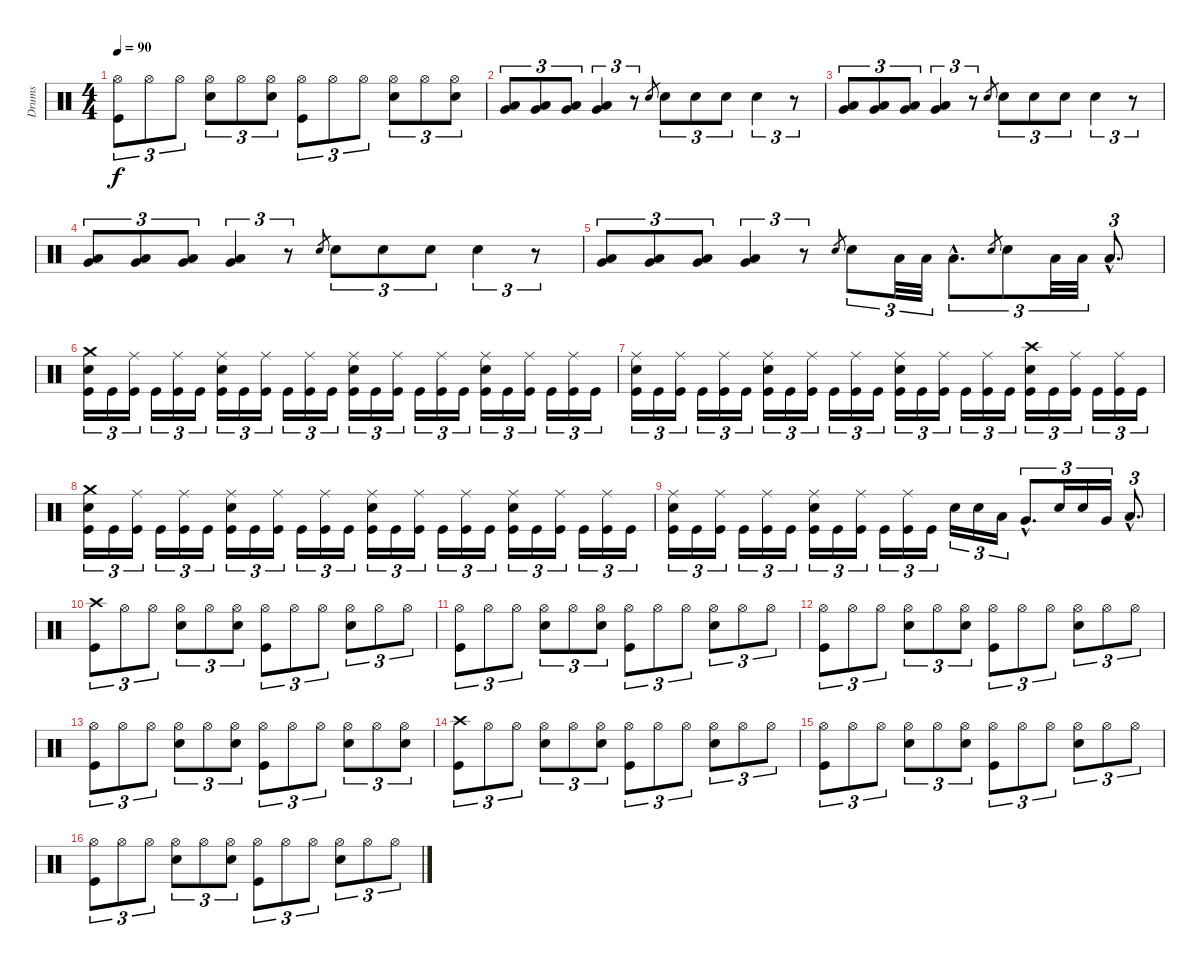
\track ("Drums" "Drums") {instrument percussion}
\staff {score}
\articulation defaults
\ts (4 4)
\tempo 90
\clef neutral
\ks c
("Hi-Hat (open)" "Kick (hit)").8{tu (3 2) dy f} "Hi-Hat (open)".8{tu (3 2)} "Hi-Hat (open)".8{tu (3 2)} ("Hi-Hat (open)" "Snare (hit) 2").8{tu (3 2)} "Hi-Hat (open)".8{tu (3 2)} ("Hi-Hat (open)" "Snare (hit) 2").8{tu (3 2)} ("Hi-Hat (open)" "Kick (hit)").8{tu (3 2)} "Hi-Hat (open)".8{tu (3 2)} "Hi-Hat (open)".8{tu (3 2)} ("Hi-Hat (open)" "Snare (hit) 2").8{tu (3 2)} "Hi-Hat (open)".8{tu (3 2)} ("Hi-Hat (open)" "Snare (hit) 2").8{tu (3 2)} |
("Very Low Tom (hit)" "Low Floor Tom (hit)").8{tu (3 2)} ("Very Low Tom (hit)" "Low Floor Tom (hit)").8{tu (3 2)} ("Very Low Tom (hit)" "Low Floor Tom (hit)").8{tu (3 2)} ("Very Low Tom (hit)" "Low Floor Tom (hit)").4{tu (3 2)} r.8{tu (3 2)} "Snare (hit) 2".8{gr} "Snare (hit) 2".8{tu (3 2)} "Snare (hit) 2".8{tu (3 2)} "Snare (hit) 2".8{tu (3 2)} "Snare (hit) 2".4{tu (3 2)} r.8{tu (3 2)} |
("Very Low Tom (hit)" "Low Floor Tom (hit)").8{tu (3 2)} ("Very Low Tom (hit)" "Low Floor Tom (hit)").8{tu (3 2)} ("Very Low Tom (hit)" "Low Floor Tom (hit)").8{tu (3 2)} ("Very Low Tom (hit)" "Low Floor Tom (hit)").4{tu (3 2)} r.8{tu (3 2)} "Snare (hit) 2".8{gr} "Snare (hit) 2".8{tu (3 2)} "Snare (hit) 2".8{tu (3 2)} "Snare (hit) 2".8{tu (3 2)} "Snare (hit) 2".4{tu (3 2)} r.8{tu (3 2)} |
("Very Low Tom (hit)" "Low Floor Tom (hit)").8{tu (3 2)} ("Very Low Tom (hit)" "Low Floor Tom (hit)").8{tu (3 2)} ("Very Low Tom (hit)" "Low Floor Tom (hit)").8{tu (3 2)} ("Very Low Tom (hit)" "Low Floor Tom (hit)").4{tu (3 2)} r.8{tu (3 2)} "Snare (hit) 2".8{gr} "Snare (hit) 2".8{tu (3 2)} "Snare (hit) 2".8{tu (3 2)} "Snare (hit) 2".8{tu (3 2)} "Snare (hit) 2".4{tu (3 2)} r.8{tu (3 2)} |
("Very Low Tom (hit)" "Low Floor Tom (hit)").8{tu (3 2)} ("Very Low Tom (hit)" "Low Floor Tom (hit)").8{tu (3 2)} ("Very Low Tom (hit)" "Low Floor Tom (hit)").8{tu (3 2)} ("Very Low Tom (hit)" "Low Floor Tom (hit)").4{tu (3 2)} r.8{tu (3 2)} "Snare (hit) 2".8{gr} "Snare (hit) 2".8{tu (3 2)} "Low Floor Tom (hit)".32{tu (3 2)} "Low Floor Tom (hit)".32{tu (3 2)} "Low Floor Tom (hit)"{hac}.8{d tu (3 2)} "Snare (hit) 2".8{gr} "Snare (hit) 2".8{tu (3 2)} "Low Floor Tom (hit)".32{tu (3 2)} "Low Floor Tom (hit)".32{tu (3 2)} "Low Floor Tom (hit)"{hac}.8{d tu (3 2)} |
("Crash medium (hit)" "Snare (hit) 2" "Kick (hit)").16{tu (3 2)} "Kick (hit)".16{tu (3 2)} ("Ride (middle)" "Kick (hit)").16{tu (3 2)} "Kick (hit)".16{tu (3 2)} ("Ride (middle)" "Kick (hit)").16{tu (3 2)} "Kick (hit)".16{tu (3 2)} ("Ride (middle)" "Snare (hit) 2" "Kick (hit)").16{tu (3 2)} "Kick (hit)".16{tu (3 2)} ("Ride (middle)" "Kick (hit)").16{tu (3 2)} "Kick (hit)".16{tu (3 2)} ("Ride (middle)" "Kick (hit)").16{tu (3 2)} "Kick (hit)".16{tu (3 2)} ("Ride (middle)" "Snare (hit) 2" "Kick (hit)").16{tu (3 2)} "Kick (hit)".16{tu (3 2)} ("Ride (middle)" "Kick (hit)").16{tu (3 2)} "Kick (hit)".16{tu (3 2)} ("Ride (middle)" "Kick (hit)").16{tu (3 2)} "Kick (hit)".16{tu (3 2)} ("Ride (middle)" "Snare (hit) 2" "Kick (hit)").16{tu (3 2)} "Kick (hit)".16{tu (3 2)} ("Ride (middle)" "Kick (hit)").16{tu (3 2)} "Kick (hit)".16{tu (3 2)} ("Ride (middle)" "Kick (hit)").16{tu (3 2)} "Kick (hit)".16{tu (3 2)} |
("Ride (middle)" "Snare (hit) 2" "Kick (hit)").16{tu (3 2)} "Kick (hit)".16{tu (3 2)} ("Ride (middle)" "Kick (hit)").16{tu (3 2)} "Kick (hit)".16{tu (3 2)} ("Ride (middle)" "Kick (hit)").16{tu (3 2)} "Kick (hit)".16{tu (3 2)} ("Ride (middle)" "Snare (hit) 2" "Kick (hit)").16{tu (3 2)} "Kick (hit)".16{tu (3 2)} ("Ride (middle)" "Kick (hit)").16{tu (3 2)} "Kick (hit)".16{tu (3 2)} ("Ride (middle)" "Kick (hit)").16{tu (3 2)} "Kick (hit)".16{tu (3 2)} ("Ride (middle)" "Snare (hit) 2" "Kick (hit)").16{tu (3 2)} "Kick (hit)".16{tu (3 2)} ("Ride (middle)" "Kick (hit)").16{tu (3 2)} "Kick (hit)".16{tu (3 2)} ("Ride (middle)" "Kick (hit)").16{tu (3 2)} "Kick (hit)".16{tu (3 2)} ("Crash high (hit)" "Snare (hit) 2" "Kick (hit)").16{tu (3 2)} "Kick (hit)".16{tu (3 2)} ("Ride (middle)" "Kick (hit)").16{tu (3 2)} "Kick (hit)".16{tu (3 2)} ("Ride (middle)" "Kick (hit)").16{tu (3 2)} "Kick (hit)".16{tu (3 2)} |
("Crash medium (hit)" "Snare (hit) 2" "Kick (hit)").16{tu (3 2)} "Kick (hit)".16{tu (3 2)} ("Ride (middle)" "Kick (hit)").16{tu (3 2)} "Kick (hit)".16{tu (3 2)} ("Ride (middle)" "Kick (hit)").16{tu (3 2)} "Kick (hit)".16{tu (3 2)} ("Ride (middle)" "Snare (hit) 2" "Kick (hit)").16{tu (3 2)} "Kick (hit)".16{tu (3 2)} ("Ride (middle)" "Kick (hit)").16{tu (3 2)} "Kick (hit)".16{tu (3 2)} ("Ride (middle)" "Kick (hit)").16{tu (3 2)} "Kick (hit)".16{tu (3 2)} ("Ride (middle)" "Snare (hit) 2" "Kick (hit)").16{tu (3 2)} "Kick (hit)".16{tu (3 2)} ("Ride (middle)" "Kick (hit)").16{tu (3 2)} "Kick (hit)".16{tu (3 2)} ("Ride (middle)" "Kick (hit)").16{tu (3 2)} "Kick (hit)".16{tu (3 2)} ("Ride (middle)" "Snare (hit) 2" "Kick (hit)").16{tu (3 2)} "Kick (hit)".16{tu (3 2)} ("Ride (middle)" "Kick (hit)").16{tu (3 2)} "Kick (hit)".16{tu (3 2)} ("Ride (middle)" "Kick (hit)").16{tu (3 2)} "Kick (hit)".16{tu (3 2)} |
("Ride (middle)" "Snare (hit) 2" "Kick (hit)").16{tu (3 2)} "Kick (hit)".16{tu (3 2)} ("Ride (middle)" "Kick (hit)").16{tu (3 2)} "Kick (hit)".16{tu (3 2)} ("Ride (middle)" "Kick (hit)").16{tu (3 2)} "Kick (hit)".16{tu (3 2)} ("Ride (middle)" "Snare (hit) 2" "Kick (hit)").16{tu (3 2)} "Kick (hit)".16{tu (3 2)} ("Ride (middle)" "Kick (hit)").16{tu (3 2)} "Kick (hit)".16{tu (3 2)} ("Ride (middle)" "Kick (hit)").16{tu (3 2)} "Kick (hit)".16{tu (3 2)} "Snare (hit) 2".16{tu (3 2)} "Snare (hit) 2".16{tu (3 2)} "Low Tom (hit)".16{tu (3 2)} "Very Low Tom (hit)"{hac}.8{d tu (3 2)} "Snare (hit) 2".16{tu (3 2)} "Snare (hit) 2".16{tu (3 2)} "Very Low Tom (hit)".16{tu (3 2)} "Low Floor Tom (hit)"{hac}.8{d tu (3 2)} |
("Crash high (hit)" "Kick (hit)").8{tu (3 2)} "Hi-Hat (open)".8{tu (3 2)} "Hi-Hat (open)".8{tu (3 2)} ("Hi-Hat (open)" "Snare (hit) 2").8{tu (3 2)} "Hi-Hat (open)".8{tu (3 2)} ("Hi-Hat (open)" "Snare (hit) 2").8{tu (3 2)} ("Hi-Hat (open)" "Kick (hit)").8{tu (3 2)} "Hi-Hat (open)".8{tu (3 2)} "Hi-Hat (open)".8{tu (3 2)} ("Hi-Hat (open)" "Snare (hit) 2").8{tu (3 2)} "Hi-Hat (open)".8{tu (3 2)} "Hi-Hat (open)".8{tu (3 2)} |
("Hi-Hat (open)" "Kick (hit)").8{tu (3 2)} "Hi-Hat (open)".8{tu (3 2)} "Hi-Hat (open)".8{tu (3 2)} ("Hi-Hat (open)" "Snare (hit) 2").8{tu (3 2)} "Hi-Hat (open)".8{tu (3 2)} ("Hi-Hat (open)" "Snare (hit) 2").8{tu (3 2)} ("Hi-Hat (open)" "Kick (hit)").8{tu (3 2)} "Hi-Hat (open)".8{tu (3 2)} "Hi-Hat (open)".8{tu (3 2)} ("Hi-Hat (open)" "Snare (hit) 2").8{tu (3 2)} "Hi-Hat (open)".8{tu (3 2)} "Hi-Hat (open)".8{tu (3 2)} |
("Hi-Hat (open)" "Kick (hit)").8{tu (3 2)} "Hi-Hat (open)".8{tu (3 2)} "Hi-Hat (open)".8{tu (3 2)} ("Hi-Hat (open)" "Snare (hit) 2").8{tu (3 2)} "Hi-Hat (open)".8{tu (3 2)} ("Hi-Hat (open)" "Snare (hit) 2").8{tu (3 2)} ("Hi-Hat (open)" "Kick (hit)").8{tu (3 2)} "Hi-Hat (open)".8{tu (3 2)} "Hi-Hat (open)".8{tu (3 2)} ("Hi-Hat (open)" "Snare (hit) 2").8{tu (3 2)} "Hi-Hat (open)".8{tu (3 2)} "Hi-Hat (open)".8{tu (3 2)} |
("Hi-Hat (open)" "Kick (hit)").8{tu (3 2)} "Hi-Hat (open)".8{tu (3 2)} "Hi-Hat (open)".8{tu (3 2)} ("Hi-Hat (open)" "Snare (hit) 2").8{tu (3 2)} "Hi-Hat (open)".8{tu (3 2)} ("Hi-Hat (open)" "Snare (hit) 2").8{tu (3 2)} ("Hi-Hat (open)" "Kick (hit)").8{tu (3 2)} "Hi-Hat (open)".8{tu (3 2)} "Hi-Hat (open)".8{tu (3 2)} ("Hi-Hat (open)" "Snare (hit) 2").8{tu (3 2)} "Hi-Hat (open)".8{tu (3 2)} ("Hi-Hat (open)" "Snare (hit) 2").8{tu (3 2)} |
("Crash high (hit)" "Kick (hit)").8{tu (3 2)} "Hi-Hat (open)".8{tu (3 2)} "Hi-Hat (open)".8{tu (3 2)} ("Hi-Hat (open)" "Snare (hit) 2").8{tu (3 2)} "Hi-Hat (open)".8{tu (3 2)} ("Hi-Hat (open)" "Snare (hit) 2").8{tu (3 2)} ("Hi-Hat (open)" "Kick (hit)").8{tu (3 2)} "Hi-Hat (open)".8{tu (3 2)} "Hi-Hat (open)".8{tu (3 2)} ("Hi-Hat (open)" "Snare (hit) 2").8{tu (3 2)} "Hi-Hat (open)".8{tu (3 2)} "Hi-Hat (open)".8{tu (3 2)} |
("Hi-Hat (open)" "Kick (hit)").8{tu (3 2)} "Hi-Hat (open)".8{tu (3 2)} "Hi-Hat (open)".8{tu (3 2)} ("Hi-Hat (open)" "Snare (hit) 2").8{tu (3 2)} "Hi-Hat (open)".8{tu (3 2)} ("Hi-Hat (open)" "Snare (hit) 2").8{tu (3 2)} ("Hi-Hat (open)" "Kick (hit)").8{tu (3 2)} "Hi-Hat (open)".8{tu (3 2)} "Hi-Hat (open)".8{tu (3 2)} ("Hi-Hat (open)" "Snare (hit) 2").8{tu (3 2)} "Hi-Hat (open)".8{tu (3 2)} "Hi-Hat (open)".8{tu (3 2)} |
("Hi-Hat (open)" "Kick (hit)").8{tu (3 2)} "Hi-Hat (open)".8{tu (3 2)} "Hi-Hat (open)".8{tu (3 2)} ("Hi-Hat (open)" "Snare (hit) 2").8{tu (3 2)} "Hi-Hat (open)".8{tu (3 2)} ("Hi-Hat (open)" "Snare (hit) 2").8{tu (3 2)} ("Hi-Hat (open)" "Kick (hit)").8{tu (3 2)} "Hi-Hat (open)".8{tu (3 2)} "Hi-Hat (open)".8{tu (3 2)} ("Hi-Hat (open)" "Snare (hit) 2").8{tu (3 2)} "Hi-Hat (open)".8{tu (3 2)} "Hi-Hat (open)".8{tu (3 2)}
